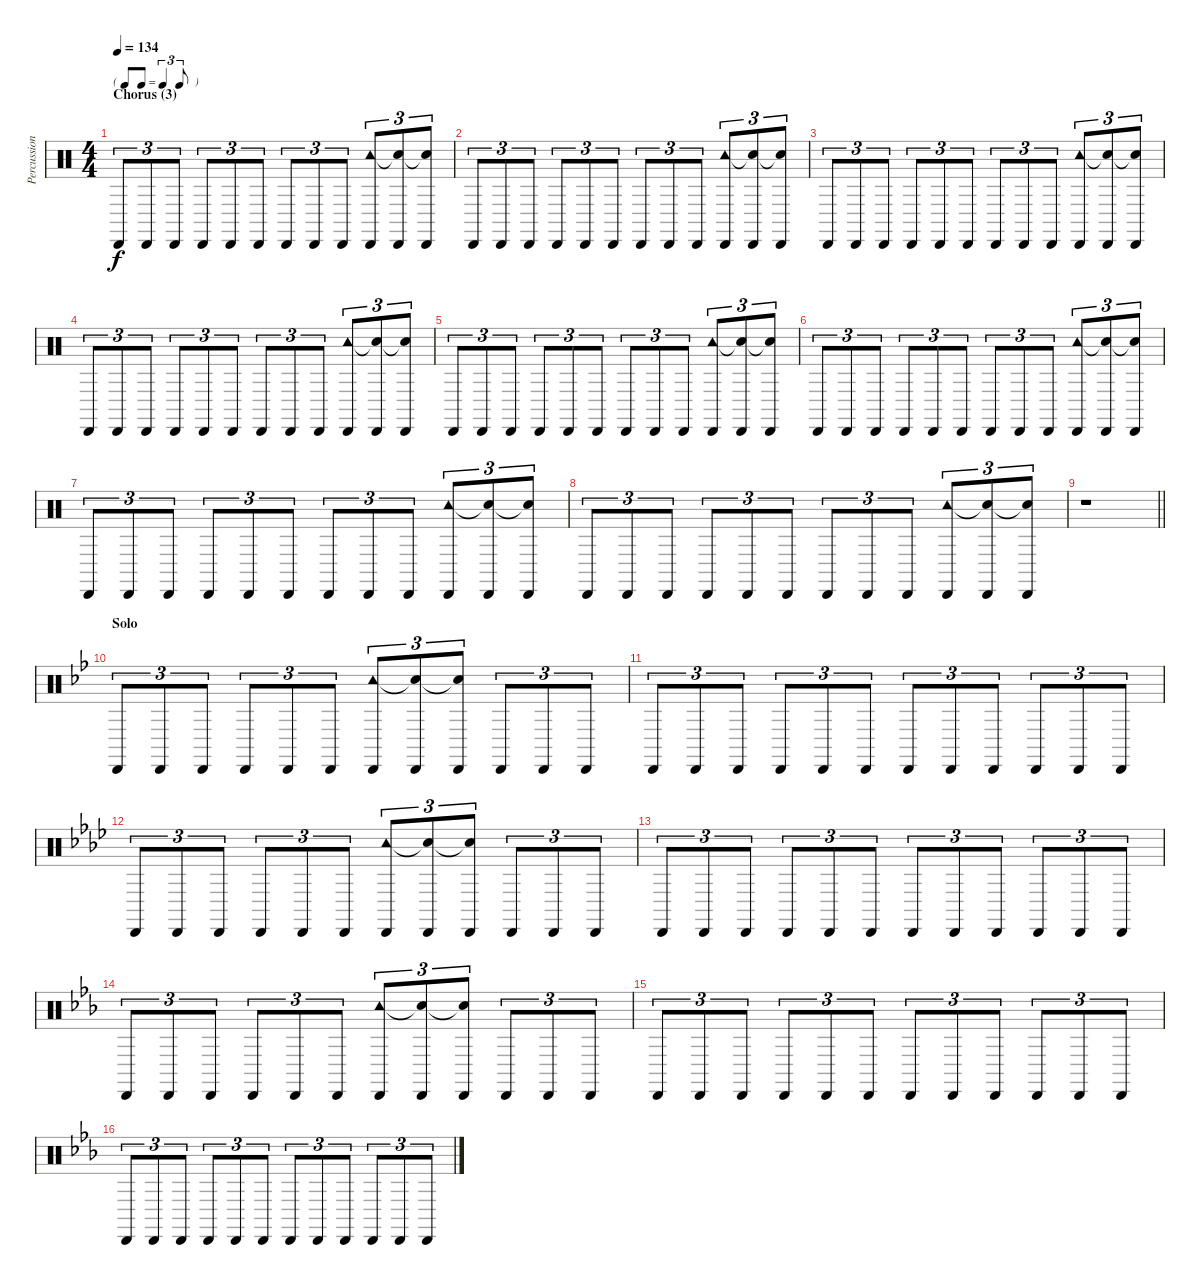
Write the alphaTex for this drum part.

\track ("Percussion" "Percussion") {instrument percussion}
\staff {score}
\articulation defaults
\ts (4 4)
\tf triplet8th
\section ("" "Chorus (3)")
\tempo 134
\clef neutral
\ks c "Cabasa (hit)".8{tu (3 2) dy f} "Cabasa (hit)".8{tu (3 2)} "Cabasa (hit)".8{tu (3 2)} "Cabasa (hit)".8{tu (3 2)} "Cabasa (hit)".8{tu (3 2)} "Cabasa (hit)".8{tu (3 2)} "Cabasa (hit)".8{tu (3 2)} "Cabasa (hit)".8{tu (3 2)} "Cabasa (hit)".8{tu (3 2)}
("Cabasa (hit)" "Tambourine (hit)").8{tu (3 2)} ("Cabasa (hit)" "Snare (hit)"{t}).8{tu (3 2)} ("Cabasa (hit)" "Snare (hit)"{t}).8{tu (3 2)} |
"Cabasa (hit)".8{tu (3 2)} "Cabasa (hit)".8{tu (3 2)} "Cabasa (hit)".8{tu (3 2)} "Cabasa (hit)".8{tu (3 2)} "Cabasa (hit)".8{tu (3 2)} "Cabasa (hit)".8{tu (3 2)} "Cabasa (hit)".8{tu (3 2)} "Cabasa (hit)".8{tu (3 2)} "Cabasa (hit)".8{tu (3 2)} ("Cabasa (hit)" "Tambourine (hit)").8{tu (3 2)} ("Cabasa (hit)" "Snare (hit)"{t}).8{tu (3 2)} ("Cabasa (hit)" "Snare (hit)"{t}).8{tu (3 2)} |
"Cabasa (hit)".8{tu (3 2)} "Cabasa (hit)".8{tu (3 2)} "Cabasa (hit)".8{tu (3 2)} "Cabasa (hit)".8{tu (3 2)} "Cabasa (hit)".8{tu (3 2)} "Cabasa (hit)".8{tu (3 2)} "Cabasa (hit)".8{tu (3 2)} "Cabasa (hit)".8{tu (3 2)} "Cabasa (hit)".8{tu (3 2)} ("Cabasa (hit)" "Tambourine (hit)").8{tu (3 2)} ("Cabasa (hit)" "Snare (hit)"{t}).8{tu (3 2)} ("Cabasa (hit)" "Snare (hit)"{t}).8{tu (3 2)} |
"Cabasa (hit)".8{tu (3 2)} "Cabasa (hit)".8{tu (3 2)} "Cabasa (hit)".8{tu (3 2)} "Cabasa (hit)".8{tu (3 2)} "Cabasa (hit)".8{tu (3 2)} "Cabasa (hit)".8{tu (3 2)} "Cabasa (hit)".8{tu (3 2)} "Cabasa (hit)".8{tu (3 2)} "Cabasa (hit)".8{tu (3 2)} ("Cabasa (hit)" "Tambourine (hit)").8{tu (3 2)} ("Cabasa (hit)" "Snare (hit)"{t}).8{tu (3 2)} ("Cabasa (hit)" "Snare (hit)"{t}).8{tu (3 2)} |
"Cabasa (hit)".8{tu (3 2)} "Cabasa (hit)".8{tu (3 2)} "Cabasa (hit)".8{tu (3 2)} "Cabasa (hit)".8{tu (3 2)} "Cabasa (hit)".8{tu (3 2)} "Cabasa (hit)".8{tu (3 2)} "Cabasa (hit)".8{tu (3 2)} "Cabasa (hit)".8{tu (3 2)} "Cabasa (hit)".8{tu (3 2)} ("Cabasa (hit)" "Tambourine (hit)").8{tu (3 2)} ("Cabasa (hit)" "Snare (hit)"{t}).8{tu (3 2)} ("Cabasa (hit)" "Snare (hit)"{t}).8{tu (3 2)} |
"Cabasa (hit)".8{tu (3 2)} "Cabasa (hit)".8{tu (3 2)} "Cabasa (hit)".8{tu (3 2)} "Cabasa (hit)".8{tu (3 2)} "Cabasa (hit)".8{tu (3 2)} "Cabasa (hit)".8{tu (3 2)} "Cabasa (hit)".8{tu (3 2)} "Cabasa (hit)".8{tu (3 2)} "Cabasa (hit)".8{tu (3 2)} ("Cabasa (hit)" "Tambourine (hit)").8{tu (3 2)} ("Cabasa (hit)" "Snare (hit)"{t}).8{tu (3 2)} ("Cabasa (hit)" "Snare (hit)"{t}).8{tu (3 2)} |
"Cabasa (hit)".8{tu (3 2)} "Cabasa (hit)".8{tu (3 2)} "Cabasa (hit)".8{tu (3 2)} "Cabasa (hit)".8{tu (3 2)} "Cabasa (hit)".8{tu (3 2)} "Cabasa (hit)".8{tu (3 2)} "Cabasa (hit)".8{tu (3 2)} "Cabasa (hit)".8{tu (3 2)} "Cabasa (hit)".8{tu (3 2)} ("Cabasa (hit)" "Tambourine (hit)").8{tu (3 2)} ("Cabasa (hit)" "Snare (hit)"{t}).8{tu (3 2)} ("Cabasa (hit)" "Snare (hit)"{t}).8{tu (3 2)} |
"Cabasa (hit)".8{tu (3 2)} "Cabasa (hit)".8{tu (3 2)} "Cabasa (hit)".8{tu (3 2)} "Cabasa (hit)".8{tu (3 2)} "Cabasa (hit)".8{tu (3 2)} "Cabasa (hit)".8{tu (3 2)} "Cabasa (hit)".8{tu (3 2)} "Cabasa (hit)".8{tu (3 2)} "Cabasa (hit)".8{tu (3 2)} ("Cabasa (hit)" "Tambourine (hit)").8{tu (3 2)} ("Cabasa (hit)" "Snare (hit)"{t}).8{tu (3 2)} ("Cabasa (hit)" "Snare (hit)"{t}).8{tu (3 2)} |
\barLineRight lightlight
r.1 |
\section ("" "Solo")
\ks gminor "Cabasa (hit)".8{tu (3 2)} "Cabasa (hit)".8{tu (3 2)} "Cabasa (hit)".8{tu (3 2)} "Cabasa (hit)".8{tu (3 2)} "Cabasa (hit)".8{tu (3 2)} "Cabasa (hit)".8{tu (3 2)}
("Cabasa (hit)" "Tambourine (hit)").8{tu (3 2)} ("Cabasa (hit)" "Snare (hit)"{t}).8{tu (3 2)} ("Cabasa (hit)" "Snare (hit)"{t}).8{tu (3 2)} "Cabasa (hit)".8{tu (3 2)} "Cabasa (hit)".8{tu (3 2)} "Cabasa (hit)".8{tu (3 2)} |
"Cabasa (hit)".8{tu (3 2)} "Cabasa (hit)".8{tu (3 2)} "Cabasa (hit)".8{tu (3 2)} "Cabasa (hit)".8{tu (3 2)} "Cabasa (hit)".8{tu (3 2)} "Cabasa (hit)".8{tu (3 2)} "Cabasa (hit)".8{tu (3 2)} "Cabasa (hit)".8{tu (3 2)} "Cabasa (hit)".8{tu (3 2)} "Cabasa (hit)".8{tu (3 2)} "Cabasa (hit)".8{tu (3 2)} "Cabasa (hit)".8{tu (3 2)} |
\ks fminor "Cabasa (hit)".8{tu (3 2)} "Cabasa (hit)".8{tu (3 2)} "Cabasa (hit)".8{tu (3 2)} "Cabasa (hit)".8{tu (3 2)} "Cabasa (hit)".8{tu (3 2)} "Cabasa (hit)".8{tu (3 2)}
("Cabasa (hit)" "Tambourine (hit)").8{tu (3 2)} ("Cabasa (hit)" "Snare (hit)"{t}).8{tu (3 2)} ("Cabasa (hit)" "Snare (hit)"{t}).8{tu (3 2)} "Cabasa (hit)".8{tu (3 2)} "Cabasa (hit)".8{tu (3 2)} "Cabasa (hit)".8{tu (3 2)} |
"Cabasa (hit)".8{tu (3 2)} "Cabasa (hit)".8{tu (3 2)} "Cabasa (hit)".8{tu (3 2)} "Cabasa (hit)".8{tu (3 2)} "Cabasa (hit)".8{tu (3 2)} "Cabasa (hit)".8{tu (3 2)} "Cabasa (hit)".8{tu (3 2)} "Cabasa (hit)".8{tu (3 2)} "Cabasa (hit)".8{tu (3 2)} "Cabasa (hit)".8{tu (3 2)} "Cabasa (hit)".8{tu (3 2)} "Cabasa (hit)".8{tu (3 2)} |
\ks eb "Cabasa (hit)".8{tu (3 2)} "Cabasa (hit)".8{tu (3 2)} "Cabasa (hit)".8{tu (3 2)} "Cabasa (hit)".8{tu (3 2)} "Cabasa (hit)".8{tu (3 2)} "Cabasa (hit)".8{tu (3 2)}
("Cabasa (hit)" "Tambourine (hit)").8{tu (3 2)} ("Cabasa (hit)" "Snare (hit)"{t}).8{tu (3 2)} ("Cabasa (hit)" "Snare (hit)"{t}).8{tu (3 2)} "Cabasa (hit)".8{tu (3 2)} "Cabasa (hit)".8{tu (3 2)} "Cabasa (hit)".8{tu (3 2)} |
"Cabasa (hit)".8{tu (3 2)} "Cabasa (hit)".8{tu (3 2)} "Cabasa (hit)".8{tu (3 2)} "Cabasa (hit)".8{tu (3 2)} "Cabasa (hit)".8{tu (3 2)} "Cabasa (hit)".8{tu (3 2)} "Cabasa (hit)".8{tu (3 2)} "Cabasa (hit)".8{tu (3 2)} "Cabasa (hit)".8{tu (3 2)} "Cabasa (hit)".8{tu (3 2)} "Cabasa (hit)".8{tu (3 2)} "Cabasa (hit)".8{tu (3 2)} |
"Cabasa (hit)".8{tu (3 2)} "Cabasa (hit)".8{tu (3 2)} "Cabasa (hit)".8{tu (3 2)} "Cabasa (hit)".8{tu (3 2)} "Cabasa (hit)".8{tu (3 2)} "Cabasa (hit)".8{tu (3 2)} "Cabasa (hit)".8{tu (3 2)} "Cabasa (hit)".8{tu (3 2)} "Cabasa (hit)".8{tu (3 2)} "Cabasa (hit)".8{tu (3 2)} "Cabasa (hit)".8{tu (3 2)} "Cabasa (hit)".8{tu (3 2)}
